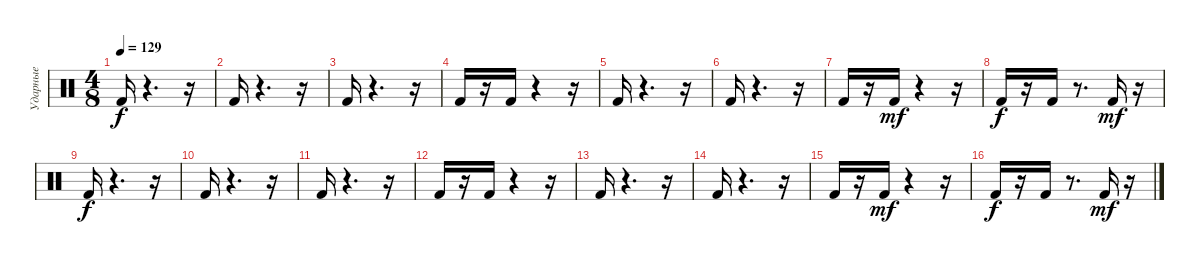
\track ("Ударные" "Ударные") {instrument percussion}
\staff {score}
\articulation defaults
\ts (4 8)
\tempo 129
\clef neutral
\ks c "Kick (hit) 2".16{dy f}
r.4{d} r.16 |
"Kick (hit) 2".16 r.4{d} r.16 |
"Kick (hit) 2".16 r.4{d} r.16 |
"Kick (hit) 2".16 r.16 "Kick (hit) 2".16 r.4 r.16 |
"Kick (hit) 2".16 r.4{d} r.16 |
"Kick (hit) 2".16 r.4{d} r.16 |
"Kick (hit) 2".16 r.16 "Kick (hit) 2".16{dy mf} r.4 r.16 |
"Kick (hit) 2".16{dy f} r.16 "Kick (hit) 2".16 r.8{d} "Kick (hit) 2".16{dy mf} r.16 |
"Kick (hit) 2".16{dy f} r.4{d} r.16 |
"Kick (hit) 2".16 r.4{d} r.16 |
"Kick (hit) 2".16 r.4{d} r.16 |
"Kick (hit) 2".16 r.16 "Kick (hit) 2".16 r.4 r.16 |
"Kick (hit) 2".16 r.4{d} r.16 |
"Kick (hit) 2".16 r.4{d} r.16 |
"Kick (hit) 2".16 r.16 "Kick (hit) 2".16{dy mf} r.4 r.16 |
"Kick (hit) 2".16{dy f} r.16 "Kick (hit) 2".16 r.8{d} "Kick (hit) 2".16{dy mf} r.16
